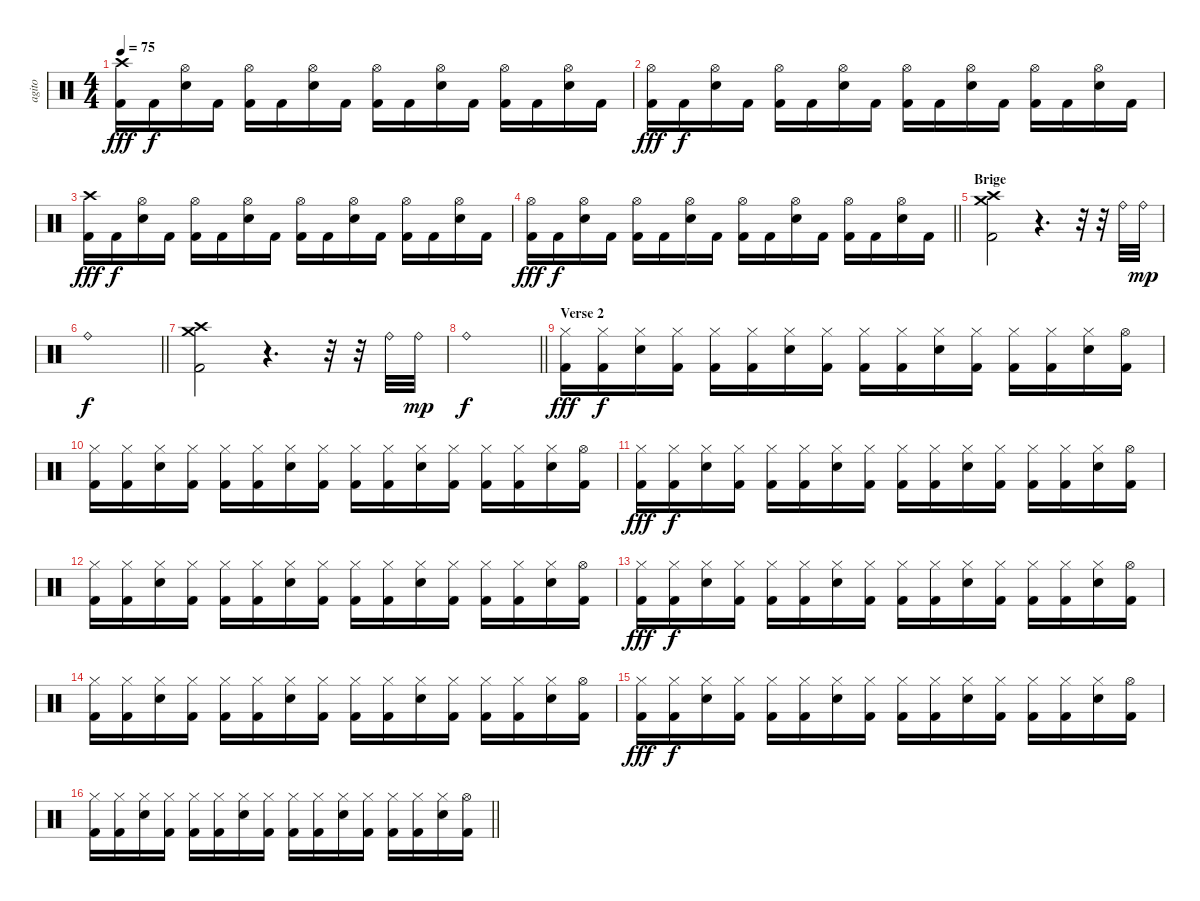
\track ("agito" "agito") {instrument percussion}
\staff {score}
\articulation defaults
\ts (4 4)
\tempo 75
\clef neutral
\ks c
("Crash high (hit)" "Kick (hit) 2").16{dy fff} "Kick (hit) 2".16{dy f} ("Hi-Hat (open)" "Snare (hit) 2").16 "Kick (hit) 2".16 ("Hi-Hat (open)" "Kick (hit) 2").16 "Kick (hit) 2".16 ("Hi-Hat (open)" "Snare (hit) 2").16 "Kick (hit) 2".16 ("Hi-Hat (open)" "Kick (hit) 2").16 "Kick (hit) 2".16 ("Hi-Hat (open)" "Snare (hit) 2").16 "Kick (hit) 2".16 ("Hi-Hat (open)" "Kick (hit) 2").16 "Kick (hit) 2".16 ("Hi-Hat (open)" "Snare (hit) 2").16 "Kick (hit) 2".16 |
("Hi-Hat (open)" "Kick (hit) 2").16{dy fff} "Kick (hit) 2".16{dy f} ("Hi-Hat (open)" "Snare (hit) 2").16 "Kick (hit) 2".16 ("Hi-Hat (open)" "Kick (hit) 2").16 "Kick (hit) 2".16 ("Hi-Hat (open)" "Snare (hit) 2").16 "Kick (hit) 2".16 ("Hi-Hat (open)" "Kick (hit) 2").16 "Kick (hit) 2".16 ("Hi-Hat (open)" "Snare (hit) 2").16 "Kick (hit) 2".16 ("Hi-Hat (open)" "Kick (hit) 2").16 "Kick (hit) 2".16 ("Hi-Hat (open)" "Snare (hit) 2").16 "Kick (hit) 2".16 |
("Crash high (hit)" "Kick (hit) 2").16{dy fff} "Kick (hit) 2".16{dy f} ("Hi-Hat (open)" "Snare (hit) 2").16 "Kick (hit) 2".16 ("Hi-Hat (open)" "Kick (hit) 2").16 "Kick (hit) 2".16 ("Hi-Hat (open)" "Snare (hit) 2").16 "Kick (hit) 2".16 ("Hi-Hat (open)" "Kick (hit) 2").16 "Kick (hit) 2".16 ("Hi-Hat (open)" "Snare (hit) 2").16 "Kick (hit) 2".16 ("Hi-Hat (open)" "Kick (hit) 2").16 "Kick (hit) 2".16 ("Hi-Hat (open)" "Snare (hit) 2").16 "Kick (hit) 2".16 |
\barLineRight lightlight
("Hi-Hat (open)" "Kick (hit) 2").16{dy fff} "Kick (hit) 2".16{dy f} ("Hi-Hat (open)" "Snare (hit) 2").16 "Kick (hit) 2".16 ("Hi-Hat (open)" "Kick (hit) 2").16 "Kick (hit) 2".16 ("Hi-Hat (open)" "Snare (hit) 2").16 "Kick (hit) 2".16 ("Hi-Hat (open)" "Kick (hit) 2").16 "Kick (hit) 2".16 ("Hi-Hat (open)" "Snare (hit) 2").16 "Kick (hit) 2".16 ("Hi-Hat (open)" "Kick (hit) 2").16 "Kick (hit) 2".16 ("Hi-Hat (open)" "Snare (hit) 2").16 "Kick (hit) 2".16 |
\section ("" "Brige")
("Crash medium (hit)" "Crash high (hit)" "Kick (hit) 2").2 r.4{d} r.32 r.32 "Ride (bell)".32 "Ride (bell)".32{dy mp} |
\barLineRight lightlight "Ride (bell)".1{dy f}
|
\section ("" "")
("Crash medium (hit)" "Crash high (hit)" "Kick (hit) 2").2 r.4{d} r.32 r.32 "Ride (bell)".32 "Ride (bell)".32{dy mp} |
\barLineRight lightlight "Ride (bell)".1{dy f}
|
\section ("" "Verse 2")
("Hi-Hat (closed)" "Kick (hit) 2").16{dy fff} ("Hi-Hat (closed)" "Kick (hit) 2").16{dy f} ("Hi-Hat (closed)" "Snare (hit) 2").16 ("Hi-Hat (closed)" "Kick (hit) 2").16 ("Hi-Hat (closed)" "Kick (hit) 2").16 ("Hi-Hat (closed)" "Kick (hit) 2").16 ("Hi-Hat (closed)" "Snare (hit) 2").16 ("Hi-Hat (closed)" "Kick (hit) 2").16 ("Hi-Hat (closed)" "Kick (hit) 2").16 ("Hi-Hat (closed)" "Kick (hit) 2").16 ("Hi-Hat (closed)" "Snare (hit) 2").16 ("Hi-Hat (closed)" "Kick (hit) 2").16 ("Hi-Hat (closed)" "Kick (hit) 2").16 ("Hi-Hat (closed)" "Kick (hit) 2").16 ("Hi-Hat (closed)" "Snare (hit) 2").16 ("Hi-Hat (open)" "Kick (hit) 2").16 |
("Hi-Hat (closed)" "Kick (hit) 2").16 ("Hi-Hat (closed)" "Kick (hit) 2").16 ("Hi-Hat (closed)" "Snare (hit) 2").16 ("Hi-Hat (closed)" "Kick (hit) 2").16 ("Hi-Hat (closed)" "Kick (hit) 2").16 ("Hi-Hat (closed)" "Kick (hit) 2").16 ("Hi-Hat (closed)" "Snare (hit) 2").16 ("Hi-Hat (closed)" "Kick (hit) 2").16 ("Hi-Hat (closed)" "Kick (hit) 2").16 ("Hi-Hat (closed)" "Kick (hit) 2").16 ("Hi-Hat (closed)" "Snare (hit) 2").16 ("Hi-Hat (closed)" "Kick (hit) 2").16 ("Hi-Hat (closed)" "Kick (hit) 2").16 ("Hi-Hat (closed)" "Kick (hit) 2").16 ("Hi-Hat (closed)" "Snare (hit) 2").16 ("Hi-Hat (open)" "Kick (hit) 2").16 |
("Hi-Hat (closed)" "Kick (hit) 2").16{dy fff} ("Hi-Hat (closed)" "Kick (hit) 2").16{dy f} ("Hi-Hat (closed)" "Snare (hit) 2").16 ("Hi-Hat (closed)" "Kick (hit) 2").16 ("Hi-Hat (closed)" "Kick (hit) 2").16 ("Hi-Hat (closed)" "Kick (hit) 2").16 ("Hi-Hat (closed)" "Snare (hit) 2").16 ("Hi-Hat (closed)" "Kick (hit) 2").16 ("Hi-Hat (closed)" "Kick (hit) 2").16 ("Hi-Hat (closed)" "Kick (hit) 2").16 ("Hi-Hat (closed)" "Snare (hit) 2").16 ("Hi-Hat (closed)" "Kick (hit) 2").16 ("Hi-Hat (closed)" "Kick (hit) 2").16 ("Hi-Hat (closed)" "Kick (hit) 2").16 ("Hi-Hat (closed)" "Snare (hit) 2").16 ("Hi-Hat (open)" "Kick (hit) 2").16 |
("Hi-Hat (closed)" "Kick (hit) 2").16 ("Hi-Hat (closed)" "Kick (hit) 2").16 ("Hi-Hat (closed)" "Snare (hit) 2").16 ("Hi-Hat (closed)" "Kick (hit) 2").16 ("Hi-Hat (closed)" "Kick (hit) 2").16 ("Hi-Hat (closed)" "Kick (hit) 2").16 ("Hi-Hat (closed)" "Snare (hit) 2").16 ("Hi-Hat (closed)" "Kick (hit) 2").16 ("Hi-Hat (closed)" "Kick (hit) 2").16 ("Hi-Hat (closed)" "Kick (hit) 2").16 ("Hi-Hat (closed)" "Snare (hit) 2").16 ("Hi-Hat (closed)" "Kick (hit) 2").16 ("Hi-Hat (closed)" "Kick (hit) 2").16 ("Hi-Hat (closed)" "Kick (hit) 2").16 ("Hi-Hat (closed)" "Snare (hit) 2").16 ("Hi-Hat (open)" "Kick (hit) 2").16 |
("Hi-Hat (closed)" "Kick (hit) 2").16{dy fff} ("Hi-Hat (closed)" "Kick (hit) 2").16{dy f} ("Hi-Hat (closed)" "Snare (hit) 2").16 ("Hi-Hat (closed)" "Kick (hit) 2").16 ("Hi-Hat (closed)" "Kick (hit) 2").16 ("Hi-Hat (closed)" "Kick (hit) 2").16 ("Hi-Hat (closed)" "Snare (hit) 2").16 ("Hi-Hat (closed)" "Kick (hit) 2").16 ("Hi-Hat (closed)" "Kick (hit) 2").16 ("Hi-Hat (closed)" "Kick (hit) 2").16 ("Hi-Hat (closed)" "Snare (hit) 2").16 ("Hi-Hat (closed)" "Kick (hit) 2").16 ("Hi-Hat (closed)" "Kick (hit) 2").16 ("Hi-Hat (closed)" "Kick (hit) 2").16 ("Hi-Hat (closed)" "Snare (hit) 2").16 ("Hi-Hat (open)" "Kick (hit) 2").16 |
("Hi-Hat (closed)" "Kick (hit) 2").16 ("Hi-Hat (closed)" "Kick (hit) 2").16 ("Hi-Hat (closed)" "Snare (hit) 2").16 ("Hi-Hat (closed)" "Kick (hit) 2").16 ("Hi-Hat (closed)" "Kick (hit) 2").16 ("Hi-Hat (closed)" "Kick (hit) 2").16 ("Hi-Hat (closed)" "Snare (hit) 2").16 ("Hi-Hat (closed)" "Kick (hit) 2").16 ("Hi-Hat (closed)" "Kick (hit) 2").16 ("Hi-Hat (closed)" "Kick (hit) 2").16 ("Hi-Hat (closed)" "Snare (hit) 2").16 ("Hi-Hat (closed)" "Kick (hit) 2").16 ("Hi-Hat (closed)" "Kick (hit) 2").16 ("Hi-Hat (closed)" "Kick (hit) 2").16 ("Hi-Hat (closed)" "Snare (hit) 2").16 ("Hi-Hat (open)" "Kick (hit) 2").16 |
("Hi-Hat (closed)" "Kick (hit) 2").16{dy fff} ("Hi-Hat (closed)" "Kick (hit) 2").16{dy f} ("Hi-Hat (closed)" "Snare (hit) 2").16 ("Hi-Hat (closed)" "Kick (hit) 2").16 ("Hi-Hat (closed)" "Kick (hit) 2").16 ("Hi-Hat (closed)" "Kick (hit) 2").16 ("Hi-Hat (closed)" "Snare (hit) 2").16 ("Hi-Hat (closed)" "Kick (hit) 2").16 ("Hi-Hat (closed)" "Kick (hit) 2").16 ("Hi-Hat (closed)" "Kick (hit) 2").16 ("Hi-Hat (closed)" "Snare (hit) 2").16 ("Hi-Hat (closed)" "Kick (hit) 2").16 ("Hi-Hat (closed)" "Kick (hit) 2").16 ("Hi-Hat (closed)" "Kick (hit) 2").16 ("Hi-Hat (closed)" "Snare (hit) 2").16 ("Hi-Hat (open)" "Kick (hit) 2").16 |
\barLineRight lightlight
("Hi-Hat (closed)" "Kick (hit) 2").16 ("Hi-Hat (closed)" "Kick (hit) 2").16 ("Hi-Hat (closed)" "Snare (hit) 2").16 ("Hi-Hat (closed)" "Kick (hit) 2").16 ("Hi-Hat (closed)" "Kick (hit) 2").16 ("Hi-Hat (closed)" "Kick (hit) 2").16 ("Hi-Hat (closed)" "Snare (hit) 2").16 ("Hi-Hat (closed)" "Kick (hit) 2").16 ("Hi-Hat (closed)" "Kick (hit) 2").16 ("Hi-Hat (closed)" "Kick (hit) 2").16 ("Hi-Hat (closed)" "Snare (hit) 2").16 ("Hi-Hat (closed)" "Kick (hit) 2").16 ("Hi-Hat (closed)" "Kick (hit) 2").16 ("Hi-Hat (closed)" "Kick (hit) 2").16 ("Hi-Hat (closed)" "Snare (hit) 2").16 ("Hi-Hat (open)" "Kick (hit) 2").16
